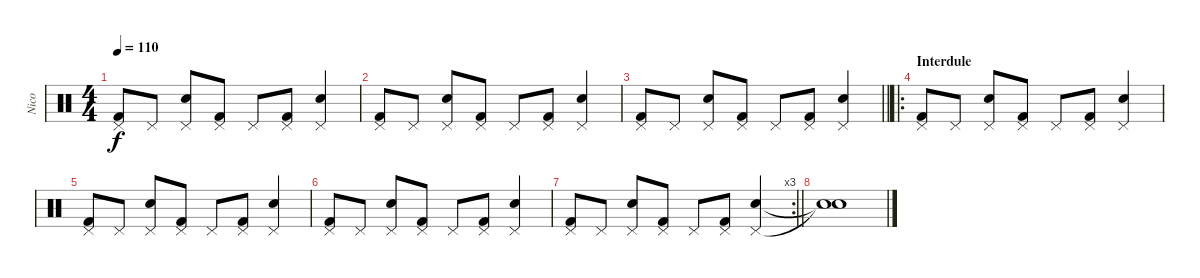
\track ("Nico" "Nico") {instrument percussion}
\staff {score}
\articulation defaults
\ts (4 4)
\tempo 110
\clef neutral
\ks c
("Pedal Hi-Hat (hit)" "Kick (hit) 2").8{dy f} "Pedal Hi-Hat (hit)".8 ("Pedal Hi-Hat (hit)" "Snare (hit) 2").8 ("Pedal Hi-Hat (hit)" "Kick (hit) 2").8 "Pedal Hi-Hat (hit)".8 ("Pedal Hi-Hat (hit)" "Kick (hit) 2").8 ("Pedal Hi-Hat (hit)" "Snare (hit) 2").4 |
("Pedal Hi-Hat (hit)" "Kick (hit) 2").8 "Pedal Hi-Hat (hit)".8 ("Pedal Hi-Hat (hit)" "Snare (hit) 2").8 ("Pedal Hi-Hat (hit)" "Kick (hit) 2").8 "Pedal Hi-Hat (hit)".8 ("Pedal Hi-Hat (hit)" "Kick (hit) 2").8 ("Pedal Hi-Hat (hit)" "Snare (hit) 2").4 |
\barLineRight lightlight
("Pedal Hi-Hat (hit)" "Kick (hit) 2").8 "Pedal Hi-Hat (hit)".8 ("Pedal Hi-Hat (hit)" "Snare (hit) 2").8 ("Pedal Hi-Hat (hit)" "Kick (hit) 2").8 "Pedal Hi-Hat (hit)".8 ("Pedal Hi-Hat (hit)" "Kick (hit) 2").8 ("Pedal Hi-Hat (hit)" "Snare (hit) 2").4 |
\ro
\section ("" "Interdule")
("Pedal Hi-Hat (hit)" "Kick (hit) 2").8 "Pedal Hi-Hat (hit)".8 ("Pedal Hi-Hat (hit)" "Snare (hit) 2").8 ("Pedal Hi-Hat (hit)" "Kick (hit) 2").8 "Pedal Hi-Hat (hit)".8 ("Pedal Hi-Hat (hit)" "Kick (hit) 2").8 ("Pedal Hi-Hat (hit)" "Snare (hit) 2").4 |
("Pedal Hi-Hat (hit)" "Kick (hit) 2").8 "Pedal Hi-Hat (hit)".8 ("Pedal Hi-Hat (hit)" "Snare (hit) 2").8 ("Pedal Hi-Hat (hit)" "Kick (hit) 2").8 "Pedal Hi-Hat (hit)".8 ("Pedal Hi-Hat (hit)" "Kick (hit) 2").8 ("Pedal Hi-Hat (hit)" "Snare (hit) 2").4 |
("Pedal Hi-Hat (hit)" "Kick (hit) 2").8 "Pedal Hi-Hat (hit)".8 ("Pedal Hi-Hat (hit)" "Snare (hit) 2").8 ("Pedal Hi-Hat (hit)" "Kick (hit) 2").8 "Pedal Hi-Hat (hit)".8 ("Pedal Hi-Hat (hit)" "Kick (hit) 2").8 ("Pedal Hi-Hat (hit)" "Snare (hit) 2").4 |
\rc 3
\barLineRight lightlight
("Pedal Hi-Hat (hit)" "Kick (hit) 2").8 "Pedal Hi-Hat (hit)".8 ("Pedal Hi-Hat (hit)" "Snare (hit) 2").8 ("Pedal Hi-Hat (hit)" "Kick (hit) 2").8 "Pedal Hi-Hat (hit)".8 ("Pedal Hi-Hat (hit)" "Kick (hit) 2").8 ("Pedal Hi-Hat (hit)" "Snare (hit) 2").4 |
("Snare (hit)"{t} "Snare (hit)"{t}).1
